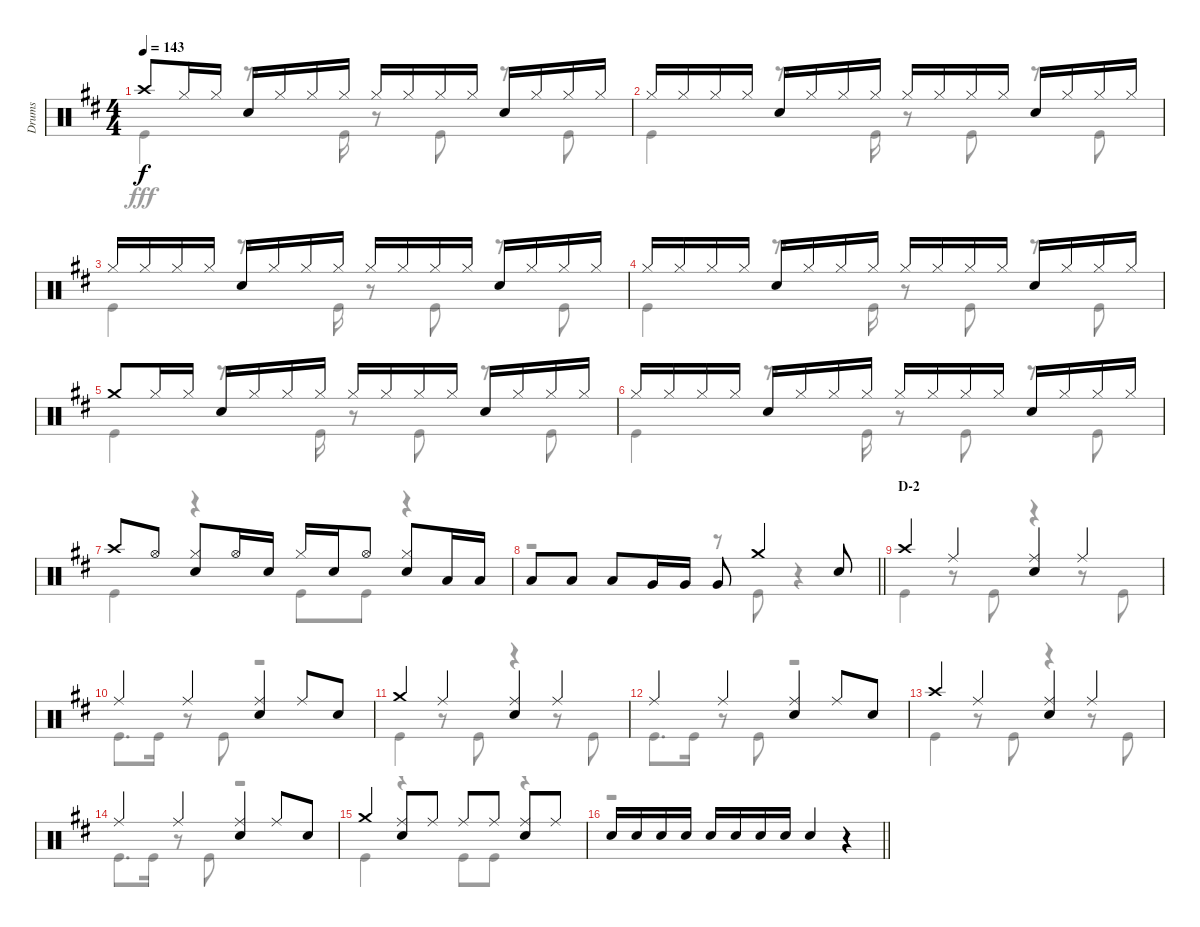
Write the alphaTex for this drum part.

\track ("Drums" "Drums") {instrument percussion}
\staff {score}
\articulation defaults
\voice
\ts (4 4)
\tempo 143
\clef neutral
\ks d "Crash high (hit)".8{dy f} "Hi-Hat (closed)".16 "Hi-Hat (closed)".16 "Snare (hit) 2".16 "Hi-Hat (closed)".16 "Hi-Hat (closed)".16 "Hi-Hat (closed)".16 "Hi-Hat (closed)".16 "Hi-Hat (closed)".16 "Hi-Hat (closed)".16 "Hi-Hat (closed)".16 "Snare (hit) 2".16 "Hi-Hat (closed)".16 "Hi-Hat (closed)".16 "Hi-Hat (closed)".16
|
"Hi-Hat (closed)".16 "Hi-Hat (closed)".16 "Hi-Hat (closed)".16 "Hi-Hat (closed)".16 "Snare (hit) 2".16 "Hi-Hat (closed)".16 "Hi-Hat (closed)".16 "Hi-Hat (closed)".16 "Hi-Hat (closed)".16 "Hi-Hat (closed)".16 "Hi-Hat (closed)".16 "Hi-Hat (closed)".16 "Snare (hit) 2".16 "Hi-Hat (closed)".16 "Hi-Hat (closed)".16 "Hi-Hat (closed)".16 |
"Hi-Hat (closed)".16 "Hi-Hat (closed)".16 "Hi-Hat (closed)".16 "Hi-Hat (closed)".16 "Snare (hit) 2".16 "Hi-Hat (closed)".16 "Hi-Hat (closed)".16 "Hi-Hat (closed)".16 "Hi-Hat (closed)".16 "Hi-Hat (closed)".16 "Hi-Hat (closed)".16 "Hi-Hat (closed)".16 "Snare (hit) 2".16 "Hi-Hat (closed)".16 "Hi-Hat (closed)".16 "Hi-Hat (closed)".16 |
"Hi-Hat (closed)".16 "Hi-Hat (closed)".16 "Hi-Hat (closed)".16 "Hi-Hat (closed)".16 "Snare (hit) 2".16 "Hi-Hat (closed)".16 "Hi-Hat (closed)".16 "Hi-Hat (closed)".16 "Hi-Hat (closed)".16 "Hi-Hat (closed)".16 "Hi-Hat (closed)".16 "Hi-Hat (closed)".16 "Snare (hit) 2".16 "Hi-Hat (closed)".16 "Hi-Hat (closed)".16 "Hi-Hat (closed)".16 |
"Crash medium (hit)".8 "Hi-Hat (closed)".16 "Hi-Hat (closed)".16 "Snare (hit) 2".16 "Hi-Hat (closed)".16 "Hi-Hat (closed)".16 "Hi-Hat (closed)".16 "Hi-Hat (closed)".16 "Hi-Hat (closed)".16 "Hi-Hat (closed)".16 "Hi-Hat (closed)".16 "Snare (hit) 2".16 "Hi-Hat (closed)".16 "Hi-Hat (closed)".16 "Hi-Hat (closed)".16 |
"Hi-Hat (closed)".16 "Hi-Hat (closed)".16 "Hi-Hat (closed)".16 "Hi-Hat (closed)".16 "Snare (hit) 2".16 "Hi-Hat (closed)".16 "Hi-Hat (closed)".16 "Hi-Hat (closed)".16 "Hi-Hat (closed)".16 "Hi-Hat (closed)".16 "Hi-Hat (closed)".16 "Hi-Hat (closed)".16 "Snare (hit) 2".16 "Hi-Hat (closed)".16 "Hi-Hat (closed)".16 "Hi-Hat (closed)".16 |
"Crash high (hit)".8 "Hi-Hat (open)".8 ("Hi-Hat (closed)" "Snare (hit) 2").8 "Hi-Hat (open)".16 "Snare (hit) 2".16 "Hi-Hat (closed)".16 "Snare (hit) 2".16 "Hi-Hat (open)".8 ("Hi-Hat (closed)" "Snare (hit) 2").8 "Low Tom (hit)".16 "Low Tom (hit)".16 |
\barLineRight lightlight "Low Tom (hit)".8 "Low Tom (hit)".8 "Low Tom (hit)".8 "Very Low Tom (hit)".16 "Very Low Tom (hit)".16 "Very Low Tom (hit)".8 "Crash medium (hit)".4 "Snare (hit) 2".8
|
\section ("" "D-2")
"Crash high (hit)".4 "Ride (middle)".4 ("Ride (middle)" "Snare (hit) 2").4 "Ride (middle)".4 |
"Ride (middle)".4 "Ride (middle)".4 ("Ride (middle)" "Snare (hit) 2").4 "Ride (middle)".8 "Snare (hit) 2".8 |
"Crash medium (hit)".4 "Ride (middle)".4 ("Ride (middle)" "Snare (hit) 2").4 "Ride (middle)".4 |
"Ride (middle)".4 "Ride (middle)".4 ("Ride (middle)" "Snare (hit) 2").4 "Ride (middle)".8 "Snare (hit) 2".8 |
"Crash high (hit)".4 "Ride (middle)".4 ("Ride (middle)" "Snare (hit) 2").4 "Ride (middle)".4 |
"Ride (middle)".4 "Ride (middle)".4 ("Ride (middle)" "Snare (hit) 2").4 "Ride (middle)".8 "Snare (hit) 2".8 |
"Crash medium (hit)".4 ("Ride (middle)" "Snare (hit) 2").8 "Ride (middle)".8 "Ride (middle)".8 "Ride (middle)".8 ("Ride (middle)" "Snare (hit) 2").8 "Ride (middle)".8 |
\barLineRight lightlight "Snare (hit) 2".16 "Snare (hit) 2".16 "Snare (hit) 2".16 "Snare (hit) 2".16 "Snare (hit) 2".16 "Snare (hit) 2".16 "Snare (hit) 2".16 "Snare (hit) 2".16 "Snare (hit) 2".4
r.4
\voice
\clef neutral
\ottava regular
\simile none
\ks d "Kick (hit)".4{dy fff}
r.8{d} "Kick (hit)".16 r.8 "Kick (hit)".8 r.8 "Kick (hit)".8 |
"Kick (hit)".4 r.8{d} "Kick (hit)".16 r.8 "Kick (hit)".8 r.8 "Kick (hit)".8 |
"Kick (hit)".4 r.8{d} "Kick (hit)".16 r.8 "Kick (hit)".8 r.8 "Kick (hit)".8 |
"Kick (hit)".4 r.8{d} "Kick (hit)".16 r.8 "Kick (hit)".8 r.8 "Kick (hit)".8 |
"Kick (hit)".4 r.8{d} "Kick (hit)".16 r.8 "Kick (hit)".8 r.8 "Kick (hit)".8 |
"Kick (hit)".4 r.8{d} "Kick (hit)".16 r.8 "Kick (hit)".8 r.8 "Kick (hit)".8 |
"Kick (hit)".4 r.4 "Kick (hit)".8 "Kick (hit)".8 r.4 |
\barLineRight lightlight
r.2 r.8 "Kick (hit)".8 r.4 |
"Kick (hit)".4 r.8 "Kick (hit)".8 r.4 r.8 "Kick (hit)".8 |
"Kick (hit)".8{d} "Kick (hit)".16 r.8 "Kick (hit)".8 r.2 |
"Kick (hit)".4 r.8 "Kick (hit)".8 r.4 r.8 "Kick (hit)".8 |
"Kick (hit)".8{d} "Kick (hit)".16 r.8 "Kick (hit)".8 r.2 |
"Kick (hit)".4 r.8 "Kick (hit)".8 r.4 r.8 "Kick (hit)".8 |
"Kick (hit)".8{d} "Kick (hit)".16 r.8 "Kick (hit)".8 r.2 |
"Kick (hit)".4 r.4 "Kick (hit)".8 "Kick (hit)".8 r.4 |
\barLineRight lightlight
r.1
